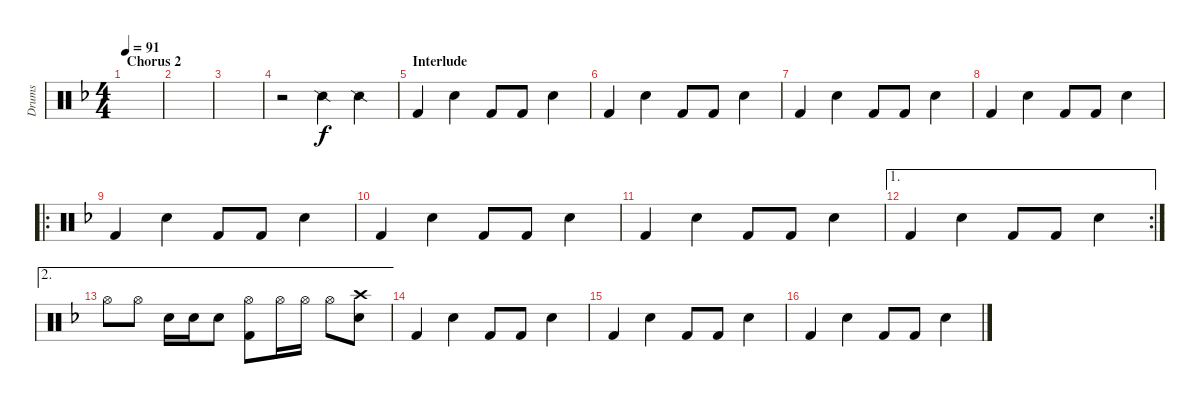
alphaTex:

\track ("Drums" "Drums") {instrument percussion}
\staff {score}
\articulation defaults
\ts (4 4)
\section ("" "Chorus 2")
\tempo 91
\clef neutral
\ks f
|
|
|
r.2 "Snare (side stick) 2".4 "Snare (side stick) 2".4 |
\section ("" "Interlude")
"Kick (hit) 2".4 "Electric Snare (hit)".4 "Kick (hit) 2".8 "Kick (hit) 2".8 "Electric Snare (hit)".4 |
"Kick (hit) 2".4 "Electric Snare (hit)".4 "Kick (hit) 2".8 "Kick (hit) 2".8 "Electric Snare (hit)".4 |
"Kick (hit) 2".4 "Electric Snare (hit)".4 "Kick (hit) 2".8 "Kick (hit) 2".8 "Electric Snare (hit)".4 |
"Kick (hit) 2".4 "Electric Snare (hit)".4 "Kick (hit) 2".8 "Kick (hit) 2".8 "Electric Snare (hit)".4 |
\ro "Kick (hit) 2".4 "Electric Snare (hit)".4 "Kick (hit) 2".8 "Kick (hit) 2".8 "Electric Snare (hit)".4
|
"Kick (hit) 2".4 "Electric Snare (hit)".4 "Kick (hit) 2".8 "Kick (hit) 2".8 "Electric Snare (hit)".4 |
"Kick (hit) 2".4 "Electric Snare (hit)".4 "Kick (hit) 2".8 "Kick (hit) 2".8 "Electric Snare (hit)".4 |
\ae 1
\rc 2 "Kick (hit) 2".4 "Electric Snare (hit)".4 "Kick (hit) 2".8 "Kick (hit) 2".8 "Electric Snare (hit)".4
|
\ae 2 "Hi-Hat (open)".8 "Hi-Hat (open)".8 "Snare (hit) 2".16 "Snare (hit) 2".16 "Snare (hit) 2".8
("Kick (hit) 2" "Hi-Hat (open)").8 "Hi-Hat (open)".16 "Hi-Hat (open)".16 "Hi-Hat (open)".8 ("Snare (hit) 2" "Crash high (hit)").8 |
"Kick (hit) 2".4 "Electric Snare (hit)".4 "Kick (hit) 2".8 "Kick (hit) 2".8 "Electric Snare (hit)".4 |
"Kick (hit) 2".4 "Electric Snare (hit)".4 "Kick (hit) 2".8 "Kick (hit) 2".8 "Electric Snare (hit)".4 |
"Kick (hit) 2".4 "Electric Snare (hit)".4 "Kick (hit) 2".8 "Kick (hit) 2".8 "Electric Snare (hit)".4
